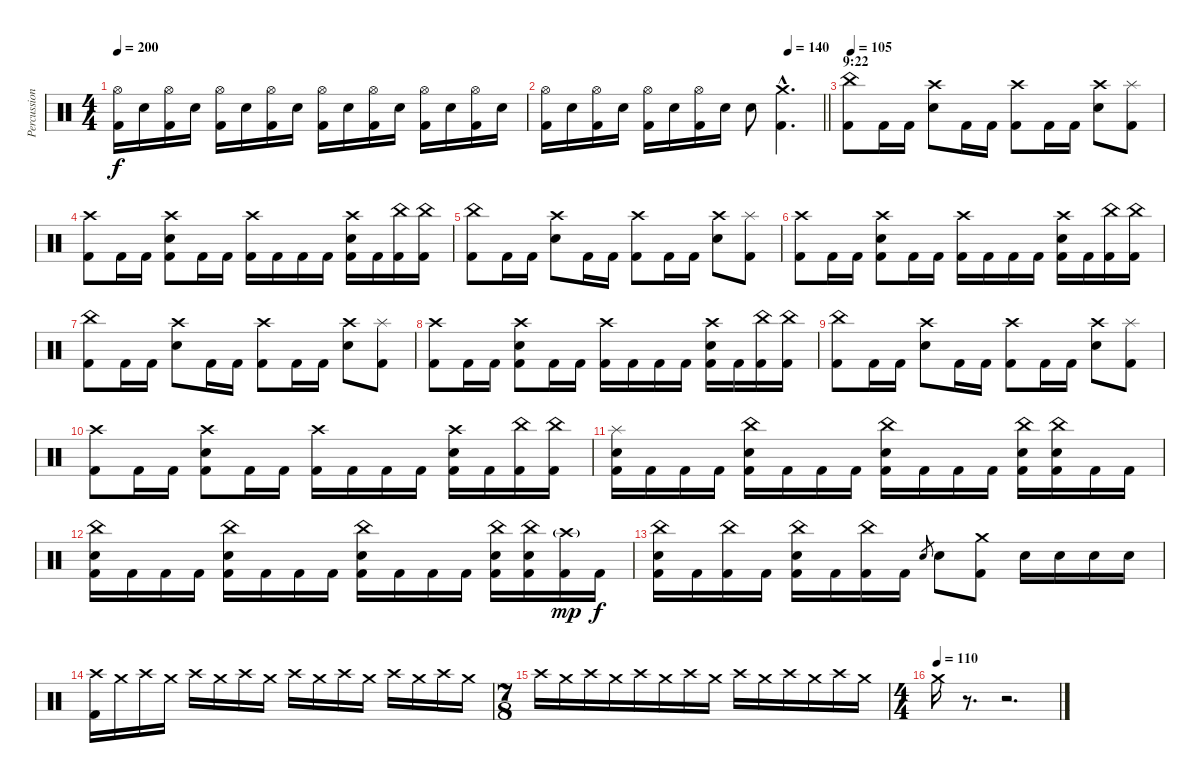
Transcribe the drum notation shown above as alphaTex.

\track ("Percussion" "Percussion") {instrument percussion}
\staff {score}
\articulation defaults
\ts (4 4)
\tempo 200
\clef neutral
\ks c
("Hi-Hat (open)" "Kick (hit) 2").16{dy f} "Electric Snare (hit)".16 ("Hi-Hat (open)" "Kick (hit) 2").16 "Electric Snare (hit)".16 ("Hi-Hat (open)" "Kick (hit) 2").16 "Electric Snare (hit)".16 ("Hi-Hat (open)" "Kick (hit) 2").16 "Electric Snare (hit)".16 ("Hi-Hat (open)" "Kick (hit) 2").16 "Electric Snare (hit)".16 ("Hi-Hat (open)" "Kick (hit) 2").16 "Electric Snare (hit)".16 ("Hi-Hat (open)" "Kick (hit) 2").16 "Electric Snare (hit)".16 ("Hi-Hat (open)" "Kick (hit) 2").16 "Electric Snare (hit)".16 |
\tempo (140 0.875)
\barLineRight lightlight
("Hi-Hat (open)" "Kick (hit) 2").16 "Electric Snare (hit)".16 ("Hi-Hat (open)" "Kick (hit) 2").16 "Electric Snare (hit)".16 ("Hi-Hat (open)" "Kick (hit) 2").16 "Electric Snare (hit)".16 ("Hi-Hat (open)" "Kick (hit) 2").16 "Electric Snare (hit)".16 "Electric Snare (hit)".8 ("Crash medium (hit)"{hac} "Kick (hit) 2"{hac}).4{d} |
\section ("" "9:22")
\tempo 105
("China (hit)" "Kick (hit) 2").8 "Kick (hit) 2".16 "Kick (hit) 2".16 ("Crash high (hit)" "Electric Snare (hit)").8 "Kick (hit) 2".16 "Kick (hit) 2".16 ("Kick (hit) 2" "Crash high (hit)").8 "Kick (hit) 2".16 "Kick (hit) 2".16 ("Electric Snare (hit)" "Crash high (hit)").8 ("Kick (hit) 2" "Splash (hit)").8 |
("Crash high (hit)" "Kick (hit) 2").8 "Kick (hit) 2".16 "Kick (hit) 2".16 ("Kick (hit) 2" "Crash high (hit)" "Electric Snare (hit)").8 "Kick (hit) 2".16 "Kick (hit) 2".16 ("Kick (hit) 2" "Crash high (hit)").16 "Kick (hit) 2".16 "Kick (hit) 2".16 "Kick (hit) 2".16 ("Kick (hit) 2" "Crash high (hit)" "Electric Snare (hit)").16 "Kick (hit) 2".16 ("Kick (hit) 2" "China (hit)").16 ("Kick (hit) 2" "China (hit)").16 |
("China (hit)" "Kick (hit) 2").8 "Kick (hit) 2".16 "Kick (hit) 2".16 ("Crash high (hit)" "Electric Snare (hit)").8 "Kick (hit) 2".16 "Kick (hit) 2".16 ("Kick (hit) 2" "Crash high (hit)").8 "Kick (hit) 2".16 "Kick (hit) 2".16 ("Electric Snare (hit)" "Crash high (hit)").8 ("Kick (hit) 2" "Splash (hit)").8 |
("Crash high (hit)" "Kick (hit) 2").8 "Kick (hit) 2".16 "Kick (hit) 2".16 ("Kick (hit) 2" "Crash high (hit)" "Electric Snare (hit)").8 "Kick (hit) 2".16 "Kick (hit) 2".16 ("Kick (hit) 2" "Crash high (hit)").16 "Kick (hit) 2".16 "Kick (hit) 2".16 "Kick (hit) 2".16 ("Kick (hit) 2" "Crash high (hit)" "Electric Snare (hit)").16 "Kick (hit) 2".16 ("Kick (hit) 2" "China (hit)").16 ("Kick (hit) 2" "China (hit)").16 |
("China (hit)" "Kick (hit) 2").8 "Kick (hit) 2".16 "Kick (hit) 2".16 ("Crash high (hit)" "Electric Snare (hit)").8 "Kick (hit) 2".16 "Kick (hit) 2".16 ("Kick (hit) 2" "Crash high (hit)").8 "Kick (hit) 2".16 "Kick (hit) 2".16 ("Electric Snare (hit)" "Crash high (hit)").8 ("Kick (hit) 2" "Splash (hit)").8 |
("Crash high (hit)" "Kick (hit) 2").8 "Kick (hit) 2".16 "Kick (hit) 2".16 ("Kick (hit) 2" "Crash high (hit)" "Electric Snare (hit)").8 "Kick (hit) 2".16 "Kick (hit) 2".16 ("Kick (hit) 2" "Crash high (hit)").16 "Kick (hit) 2".16 "Kick (hit) 2".16 "Kick (hit) 2".16 ("Kick (hit) 2" "Crash high (hit)" "Electric Snare (hit)").16 "Kick (hit) 2".16 ("Kick (hit) 2" "China (hit)").16 ("Kick (hit) 2" "China (hit)").16 |
("China (hit)" "Kick (hit) 2").8 "Kick (hit) 2".16 "Kick (hit) 2".16 ("Crash high (hit)" "Electric Snare (hit)").8 "Kick (hit) 2".16 "Kick (hit) 2".16 ("Kick (hit) 2" "Crash high (hit)").8 "Kick (hit) 2".16 "Kick (hit) 2".16 ("Electric Snare (hit)" "Crash high (hit)").8 ("Kick (hit) 2" "Splash (hit)").8 |
("Crash high (hit)" "Kick (hit) 2").8 "Kick (hit) 2".16 "Kick (hit) 2".16 ("Kick (hit) 2" "Crash high (hit)" "Electric Snare (hit)").8 "Kick (hit) 2".16 "Kick (hit) 2".16 ("Kick (hit) 2" "Crash high (hit)").16 "Kick (hit) 2".16 "Kick (hit) 2".16 "Kick (hit) 2".16 ("Kick (hit) 2" "Crash high (hit)" "Electric Snare (hit)").16 "Kick (hit) 2".16 ("Kick (hit) 2" "China (hit)").16 ("Kick (hit) 2" "China (hit)").16 |
("Kick (hit) 2" "Splash (hit)" "Electric Snare (hit)").16 "Kick (hit) 2".16 "Kick (hit) 2".16 "Kick (hit) 2".16 ("Kick (hit) 2" "China (hit)" "Electric Snare (hit)").16 "Kick (hit) 2".16 "Kick (hit) 2".16 "Kick (hit) 2".16 ("Kick (hit) 2" "China (hit)" "Electric Snare (hit)").16 "Kick (hit) 2".16 "Kick (hit) 2".16 "Kick (hit) 2".16 ("Kick (hit) 2" "China (hit)" "Electric Snare (hit)").16 ("Kick (hit) 2" "China (hit)" "Electric Snare (hit)").16 "Kick (hit) 2".16 "Kick (hit) 2".16 |
("Kick (hit) 2" "China (hit)" "Electric Snare (hit)").16 "Kick (hit) 2".16 "Kick (hit) 2".16 "Kick (hit) 2".16 ("Kick (hit) 2" "Electric Snare (hit)" "China (hit)").16 "Kick (hit) 2".16 "Kick (hit) 2".16 "Kick (hit) 2".16 ("Kick (hit) 2" "China (hit)" "Electric Snare (hit)").16 "Kick (hit) 2".16 "Kick (hit) 2".16 "Kick (hit) 2".16 ("Kick (hit) 2" "China (hit)" "Electric Snare (hit)").16 ("Kick (hit) 2" "Electric Snare (hit)" "China (hit)").16 ("Kick (hit) 2" "Crash high (hit)"{g}).16{dy mp} "Kick (hit) 2".16{dy f} |
("Kick (hit) 2" "China (hit)" "Electric Snare (hit)").16 "Kick (hit) 2".16 ("Kick (hit) 2" "China (hit)").16 "Kick (hit) 2".16 ("Kick (hit) 2" "Electric Snare (hit)" "China (hit)").16 "Kick (hit) 2".16 ("Kick (hit) 2" "China (hit)").16 "Kick (hit) 2".16 "Electric Snare (hit)".8{gr} "Electric Snare (hit)".8 ("Crash medium (hit)" "Kick (hit) 2").8 "Electric Snare (hit)".16 "Electric Snare (hit)".16 "Electric Snare (hit)".16 "Electric Snare (hit)".16 |
("Crash high (hit)" "Kick (hit) 2").16 "Crash medium (hit)".16{volume 3} "Crash high (hit)".16{volume 14} "Crash medium (hit)".16 "Crash high (hit)".16 "Crash medium (hit)".16 "Crash high (hit)".16 "Crash medium (hit)".16 "Crash high (hit)".16 "Crash medium (hit)".16 "Crash high (hit)".16 "Crash medium (hit)".16 "Crash high (hit)".16 "Crash medium (hit)".16 "Crash high (hit)".16 "Crash medium (hit)".16 |
\ts (7 8)
"Crash high (hit)".16 "Crash medium (hit)".16 "Crash high (hit)".16 "Crash medium (hit)".16 "Crash high (hit)".16 "Crash medium (hit)".16 "Crash high (hit)".16 "Crash medium (hit)".16 "Crash high (hit)".16 "Crash medium (hit)".16 "Crash high (hit)".16 "Crash medium (hit)".16 "Crash high (hit)".16 "Crash medium (hit)".16 |
\ts (4 4)
\tempo (110)
"Crash medium (hit)".16 r.8{d volume 0} r.2{d}
